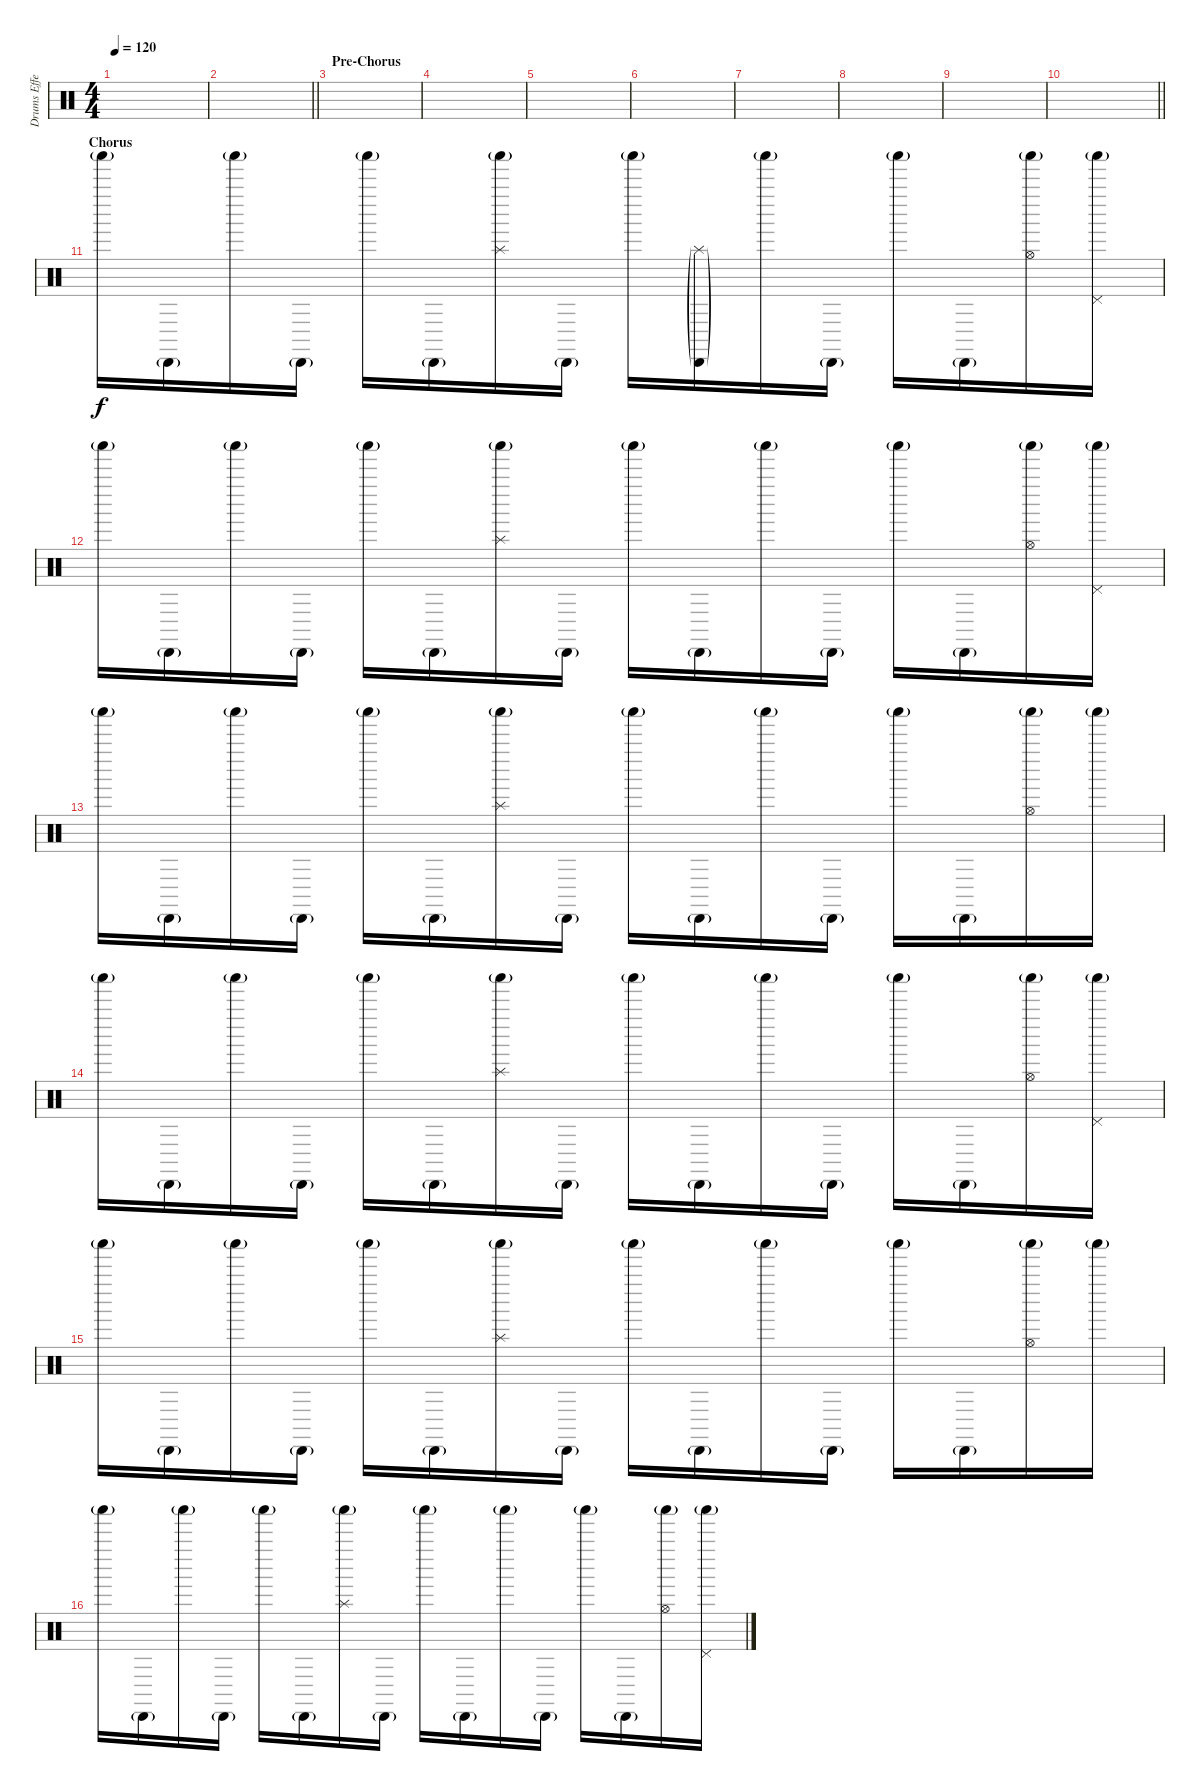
\track ("Drums Effects" "Drums Effe") {instrument percussion}
\staff {score}
\articulation defaults
\ts (4 4)
\tempo 120
\clef neutral
\ks c
|
\barLineRight lightlight
|
\section ("" "Pre-Chorus")
|
|
|
|
|
|
|
\barLineRight lightlight
|
\section ("" "Chorus")
"Shaker (hit)"{g}.16 "Cabasa (hit)"{g}.16 "Shaker (hit)"{g}.16 "Cabasa (hit)"{g}.16 "Shaker (hit)"{g}.16 "Cabasa (hit)"{g}.16 ("Shaker (hit)"{g} "Splash (hit)").16 "Cabasa (hit)"{g}.16 "Shaker (hit)"{g}.16 ("Cabasa (hit)"{g} "Splash (hit)"{g}).16 "Shaker (hit)"{g}.16 "Cabasa (hit)"{g}.16 "Shaker (hit)"{g}.16 "Cabasa (hit)"{g}.16 ("Shaker (hit)"{g} "Hi-Hat (open)").16 ("Shaker (hit)"{g} "Pedal Hi-Hat (hit)").16 |
"Shaker (hit)"{g}.16 "Cabasa (hit)"{g}.16 "Shaker (hit)"{g}.16 "Cabasa (hit)"{g}.16 "Shaker (hit)"{g}.16 "Cabasa (hit)"{g}.16 ("Shaker (hit)"{g} "Splash (hit)").16 "Cabasa (hit)"{g}.16 "Shaker (hit)"{g}.16 "Cabasa (hit)"{g}.16 "Shaker (hit)"{g}.16 "Cabasa (hit)"{g}.16 "Shaker (hit)"{g}.16 "Cabasa (hit)"{g}.16 ("Shaker (hit)"{g} "Hi-Hat (open)").16 ("Shaker (hit)"{g} "Pedal Hi-Hat (hit)").16 |
"Shaker (hit)"{g}.16 "Cabasa (hit)"{g}.16 "Shaker (hit)"{g}.16 "Cabasa (hit)"{g}.16 "Shaker (hit)"{g}.16 "Cabasa (hit)"{g}.16 ("Shaker (hit)"{g} "Splash (hit)").16 "Cabasa (hit)"{g}.16 "Shaker (hit)"{g}.16 "Cabasa (hit)"{g}.16 "Shaker (hit)"{g}.16 "Cabasa (hit)"{g}.16 "Shaker (hit)"{g}.16 "Cabasa (hit)"{g}.16 ("Shaker (hit)"{g} "Hi-Hat (open)").16 "Shaker (hit)"{g}.16 |
"Shaker (hit)"{g}.16 "Cabasa (hit)"{g}.16 "Shaker (hit)"{g}.16 "Cabasa (hit)"{g}.16 "Shaker (hit)"{g}.16 "Cabasa (hit)"{g}.16 ("Shaker (hit)"{g} "Splash (hit)").16 "Cabasa (hit)"{g}.16 "Shaker (hit)"{g}.16 "Cabasa (hit)"{g}.16 "Shaker (hit)"{g}.16 "Cabasa (hit)"{g}.16 "Shaker (hit)"{g}.16 "Cabasa (hit)"{g}.16 ("Shaker (hit)"{g} "Hi-Hat (open)").16 ("Shaker (hit)"{g} "Pedal Hi-Hat (hit)").16 |
"Shaker (hit)"{g}.16 "Cabasa (hit)"{g}.16 "Shaker (hit)"{g}.16 "Cabasa (hit)"{g}.16 "Shaker (hit)"{g}.16 "Cabasa (hit)"{g}.16 ("Shaker (hit)"{g} "Splash (hit)").16 "Cabasa (hit)"{g}.16 "Shaker (hit)"{g}.16 "Cabasa (hit)"{g}.16 "Shaker (hit)"{g}.16 "Cabasa (hit)"{g}.16 "Shaker (hit)"{g}.16 "Cabasa (hit)"{g}.16 ("Shaker (hit)"{g} "Hi-Hat (open)").16 "Shaker (hit)"{g}.16 |
"Shaker (hit)"{g}.16 "Cabasa (hit)"{g}.16 "Shaker (hit)"{g}.16 "Cabasa (hit)"{g}.16 "Shaker (hit)"{g}.16 "Cabasa (hit)"{g}.16 ("Shaker (hit)"{g} "Splash (hit)").16 "Cabasa (hit)"{g}.16 "Shaker (hit)"{g}.16 "Cabasa (hit)"{g}.16 "Shaker (hit)"{g}.16 "Cabasa (hit)"{g}.16 "Shaker (hit)"{g}.16 "Cabasa (hit)"{g}.16 ("Shaker (hit)"{g} "Hi-Hat (open)").16 ("Shaker (hit)"{g} "Pedal Hi-Hat (hit)").16
